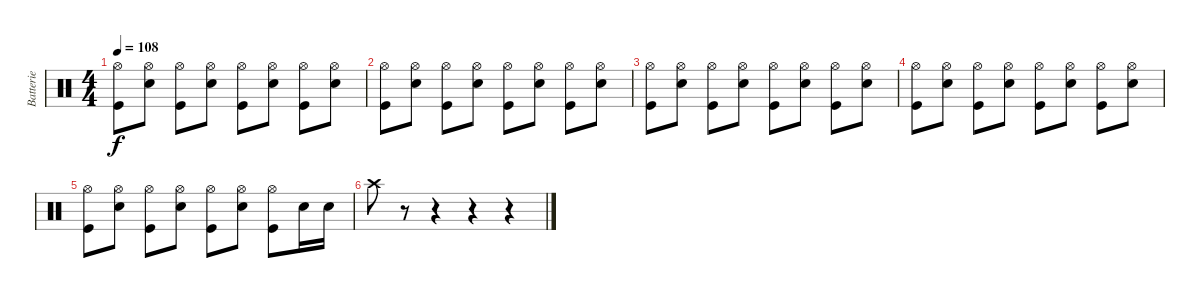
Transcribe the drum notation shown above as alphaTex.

\track ("Batterie" "Batterie") {instrument percussion}
\staff {score}
\articulation defaults
\ts (4 4)
\tempo 108
\clef neutral
\ks c
("Hi-Hat (open)" "Kick (hit)").8{dy f} ("Hi-Hat (open)" "Snare (hit) 2").8 ("Hi-Hat (open)" "Kick (hit)").8 ("Hi-Hat (open)" "Snare (hit) 2").8 ("Hi-Hat (open)" "Kick (hit)").8 ("Hi-Hat (open)" "Snare (hit) 2").8 ("Hi-Hat (open)" "Kick (hit)").8 ("Hi-Hat (open)" "Snare (hit) 2").8 |
("Hi-Hat (open)" "Kick (hit)").8 ("Hi-Hat (open)" "Snare (hit) 2").8 ("Hi-Hat (open)" "Kick (hit)").8 ("Hi-Hat (open)" "Snare (hit) 2").8 ("Hi-Hat (open)" "Kick (hit)").8 ("Hi-Hat (open)" "Snare (hit) 2").8 ("Hi-Hat (open)" "Kick (hit)").8 ("Hi-Hat (open)" "Snare (hit) 2").8 |
("Hi-Hat (open)" "Kick (hit)").8 ("Hi-Hat (open)" "Snare (hit) 2").8 ("Hi-Hat (open)" "Kick (hit)").8 ("Hi-Hat (open)" "Snare (hit) 2").8 ("Hi-Hat (open)" "Kick (hit)").8 ("Hi-Hat (open)" "Snare (hit) 2").8 ("Hi-Hat (open)" "Kick (hit)").8 ("Hi-Hat (open)" "Snare (hit) 2").8 |
("Hi-Hat (open)" "Kick (hit)").8 ("Hi-Hat (open)" "Snare (hit) 2").8 ("Hi-Hat (open)" "Kick (hit)").8 ("Hi-Hat (open)" "Snare (hit) 2").8 ("Hi-Hat (open)" "Kick (hit)").8 ("Hi-Hat (open)" "Snare (hit) 2").8 ("Hi-Hat (open)" "Kick (hit)").8 ("Hi-Hat (open)" "Snare (hit) 2").8 |
("Hi-Hat (open)" "Kick (hit)").8 ("Hi-Hat (open)" "Snare (hit) 2").8 ("Hi-Hat (open)" "Kick (hit)").8 ("Hi-Hat (open)" "Snare (hit) 2").8 ("Hi-Hat (open)" "Kick (hit)").8 ("Hi-Hat (open)" "Snare (hit) 2").8 ("Hi-Hat (open)" "Kick (hit)").8 "Snare (hit) 2".16 "Snare (hit) 2".16 |
"Crash high (hit)".8 r.8 r.4 r.4 r.4
